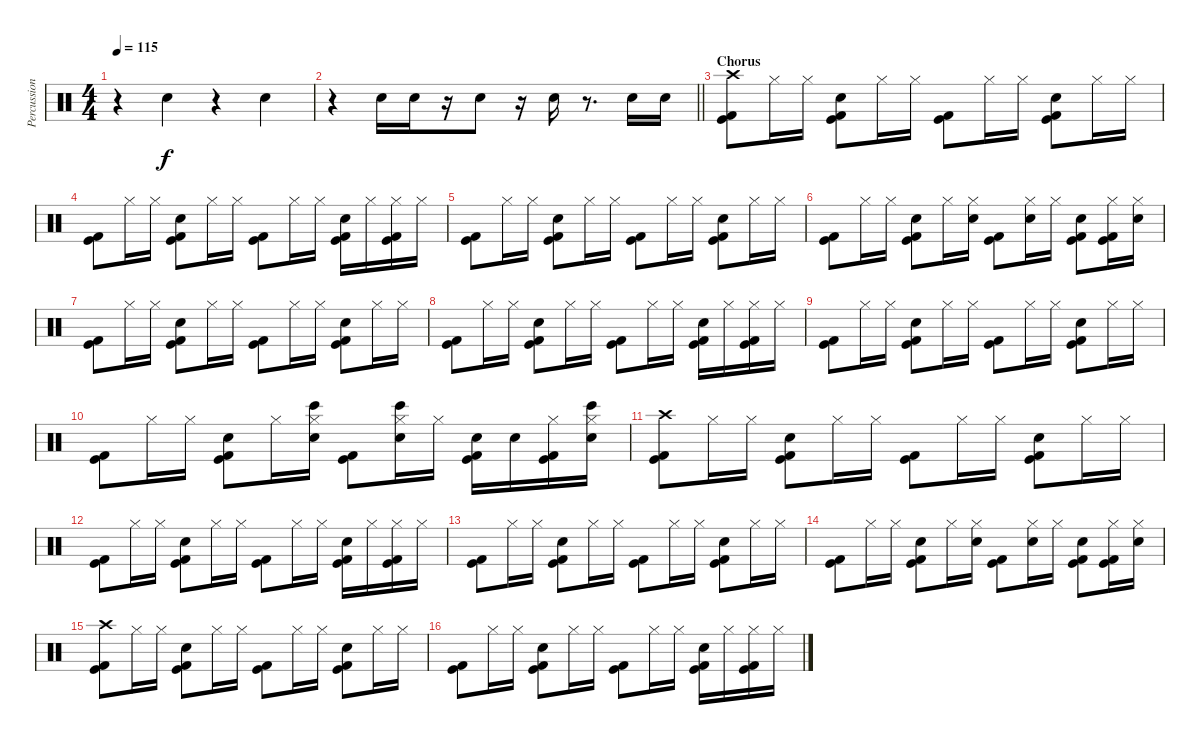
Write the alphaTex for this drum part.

\track ("Percussion" "Percussion") {instrument percussion}
\staff {score}
\articulation defaults
\ts (4 4)
\tempo 115
\clef neutral
\ks c
r.4{dy f} "Electric Snare (hit)".4 r.4 "Electric Snare (hit)".4 |
\barLineRight lightlight
r.4 "Electric Snare (hit)".16 "Electric Snare (hit)".16 r.16 "Electric Snare (hit)".8 r.16 "Electric Snare (hit)".16 r.8{d} "Electric Snare (hit)".16 "Electric Snare (hit)".16 |
\section ("" "Chorus")
("Crash high (hit)" "Kick (hit)" "Kick (hit) 2").8 "Hi-Hat (closed)".16 "Hi-Hat (closed)".16 ("Electric Snare (hit)" "Kick (hit)" "Kick (hit) 2").8 "Hi-Hat (closed)".16 "Hi-Hat (closed)".16 ("Kick (hit)" "Kick (hit) 2").8 "Hi-Hat (closed)".16 "Hi-Hat (closed)".16 ("Electric Snare (hit)" "Kick (hit)" "Kick (hit) 2").8 "Hi-Hat (closed)".16 "Hi-Hat (closed)".16 |
("Kick (hit)" "Kick (hit) 2").8 "Hi-Hat (closed)".16 "Hi-Hat (closed)".16 ("Electric Snare (hit)" "Kick (hit)" "Kick (hit) 2").8 "Hi-Hat (closed)".16 "Hi-Hat (closed)".16 ("Kick (hit)" "Kick (hit) 2").8 "Hi-Hat (closed)".16 "Hi-Hat (closed)".16 ("Electric Snare (hit)" "Kick (hit)" "Kick (hit) 2").16 "Hi-Hat (closed)".16 ("Hi-Hat (closed)" "Kick (hit)" "Kick (hit) 2").16 "Hi-Hat (closed)".16 |
("Kick (hit)" "Kick (hit) 2").8 "Hi-Hat (closed)".16 "Hi-Hat (closed)".16 ("Electric Snare (hit)" "Kick (hit)" "Kick (hit) 2").8 "Hi-Hat (closed)".16 "Hi-Hat (closed)".16 ("Kick (hit)" "Kick (hit) 2").8 "Hi-Hat (closed)".16 "Hi-Hat (closed)".16 ("Electric Snare (hit)" "Kick (hit)" "Kick (hit) 2").8 "Hi-Hat (closed)".16 "Hi-Hat (closed)".16 |
("Kick (hit)" "Kick (hit) 2").8 "Hi-Hat (closed)".16 "Hi-Hat (closed)".16 ("Electric Snare (hit)" "Kick (hit)" "Kick (hit) 2").8 "Hi-Hat (closed)".16 ("Hi-Hat (closed)" "Electric Snare (hit)").16 ("Kick (hit)" "Kick (hit) 2").8 ("Hi-Hat (closed)" "Electric Snare (hit)").16 "Hi-Hat (closed)".16 ("Electric Snare (hit)" "Kick (hit)" "Kick (hit) 2").8 ("Hi-Hat (closed)" "Kick (hit)" "Kick (hit) 2").16 ("Hi-Hat (closed)" "Electric Snare (hit)").16 |
("Kick (hit)" "Kick (hit) 2").8 "Hi-Hat (closed)".16 "Hi-Hat (closed)".16 ("Electric Snare (hit)" "Kick (hit)" "Kick (hit) 2").8 "Hi-Hat (closed)".16 "Hi-Hat (closed)".16 ("Kick (hit)" "Kick (hit) 2").8 "Hi-Hat (closed)".16 "Hi-Hat (closed)".16 ("Electric Snare (hit)" "Kick (hit)" "Kick (hit) 2").8 "Hi-Hat (closed)".16 "Hi-Hat (closed)".16 |
("Kick (hit)" "Kick (hit) 2").8 "Hi-Hat (closed)".16 "Hi-Hat (closed)".16 ("Electric Snare (hit)" "Kick (hit)" "Kick (hit) 2").8 "Hi-Hat (closed)".16 "Hi-Hat (closed)".16 ("Kick (hit)" "Kick (hit) 2").8 "Hi-Hat (closed)".16 "Hi-Hat (closed)".16 ("Electric Snare (hit)" "Kick (hit)" "Kick (hit) 2").16 "Hi-Hat (closed)".16 ("Hi-Hat (closed)" "Kick (hit)" "Kick (hit) 2").16 "Hi-Hat (closed)".16 |
("Kick (hit)" "Kick (hit) 2").8 "Hi-Hat (closed)".16 "Hi-Hat (closed)".16 ("Electric Snare (hit)" "Kick (hit)" "Kick (hit) 2").8 "Hi-Hat (closed)".16 "Hi-Hat (closed)".16 ("Kick (hit)" "Kick (hit) 2").8 "Hi-Hat (closed)".16 "Hi-Hat (closed)".16 ("Electric Snare (hit)" "Kick (hit)" "Kick (hit) 2").8 "Hi-Hat (closed)".16 "Hi-Hat (closed)".16 |
("Kick (hit)" "Kick (hit) 2").8 "Hi-Hat (closed)".16 "Hi-Hat (closed)".16 ("Electric Snare (hit)" "Kick (hit)" "Kick (hit) 2").8 "Hi-Hat (closed)".16 ("Hi-Hat (closed)" "Bongo High (hit)" "Electric Snare (hit)").16 ("Kick (hit)" "Kick (hit) 2").8 ("Hi-Hat (closed)" "Bongo High (hit)" "Electric Snare (hit)").16 "Hi-Hat (closed)".16 ("Electric Snare (hit)" "Kick (hit)" "Kick (hit) 2").16 "Electric Snare (hit)".16 ("Hi-Hat (closed)" "Kick (hit)" "Kick (hit) 2").16 ("Hi-Hat (closed)" "Bongo High (hit)" "Electric Snare (hit)").16 |
("Crash high (hit)" "Kick (hit)" "Kick (hit) 2").8 "Hi-Hat (closed)".16 "Hi-Hat (closed)".16 ("Electric Snare (hit)" "Kick (hit)" "Kick (hit) 2").8 "Hi-Hat (closed)".16 "Hi-Hat (closed)".16 ("Kick (hit)" "Kick (hit) 2").8 "Hi-Hat (closed)".16 "Hi-Hat (closed)".16 ("Electric Snare (hit)" "Kick (hit)" "Kick (hit) 2").8 "Hi-Hat (closed)".16 "Hi-Hat (closed)".16 |
("Kick (hit)" "Kick (hit) 2").8 "Hi-Hat (closed)".16 "Hi-Hat (closed)".16 ("Electric Snare (hit)" "Kick (hit)" "Kick (hit) 2").8 "Hi-Hat (closed)".16 "Hi-Hat (closed)".16 ("Kick (hit)" "Kick (hit) 2").8 "Hi-Hat (closed)".16 "Hi-Hat (closed)".16 ("Electric Snare (hit)" "Kick (hit)" "Kick (hit) 2").16 "Hi-Hat (closed)".16 ("Hi-Hat (closed)" "Kick (hit)" "Kick (hit) 2").16 "Hi-Hat (closed)".16 |
("Kick (hit)" "Kick (hit) 2").8 "Hi-Hat (closed)".16 "Hi-Hat (closed)".16 ("Electric Snare (hit)" "Kick (hit)" "Kick (hit) 2").8 "Hi-Hat (closed)".16 "Hi-Hat (closed)".16 ("Kick (hit)" "Kick (hit) 2").8 "Hi-Hat (closed)".16 "Hi-Hat (closed)".16 ("Electric Snare (hit)" "Kick (hit)" "Kick (hit) 2").8 "Hi-Hat (closed)".16 "Hi-Hat (closed)".16 |
("Kick (hit)" "Kick (hit) 2").8 "Hi-Hat (closed)".16 "Hi-Hat (closed)".16 ("Electric Snare (hit)" "Kick (hit)" "Kick (hit) 2").8 "Hi-Hat (closed)".16 ("Hi-Hat (closed)" "Electric Snare (hit)").16 ("Kick (hit)" "Kick (hit) 2").8 ("Hi-Hat (closed)" "Electric Snare (hit)").16 "Hi-Hat (closed)".16 ("Electric Snare (hit)" "Kick (hit)" "Kick (hit) 2").8 ("Hi-Hat (closed)" "Kick (hit)" "Kick (hit) 2").16 ("Hi-Hat (closed)" "Electric Snare (hit)").16 |
("Crash high (hit)" "Kick (hit)" "Kick (hit) 2").8 "Hi-Hat (closed)".16 "Hi-Hat (closed)".16 ("Electric Snare (hit)" "Kick (hit)" "Kick (hit) 2").8 "Hi-Hat (closed)".16 "Hi-Hat (closed)".16 ("Kick (hit)" "Kick (hit) 2").8 "Hi-Hat (closed)".16 "Hi-Hat (closed)".16 ("Electric Snare (hit)" "Kick (hit)" "Kick (hit) 2").8 "Hi-Hat (closed)".16 "Hi-Hat (closed)".16 |
("Kick (hit)" "Kick (hit) 2").8 "Hi-Hat (closed)".16 "Hi-Hat (closed)".16 ("Electric Snare (hit)" "Kick (hit)" "Kick (hit) 2").8 "Hi-Hat (closed)".16 "Hi-Hat (closed)".16 ("Kick (hit)" "Kick (hit) 2").8 "Hi-Hat (closed)".16 "Hi-Hat (closed)".16 ("Electric Snare (hit)" "Kick (hit)" "Kick (hit) 2").16 "Hi-Hat (closed)".16 ("Hi-Hat (closed)" "Kick (hit)" "Kick (hit) 2").16 "Hi-Hat (closed)".16
